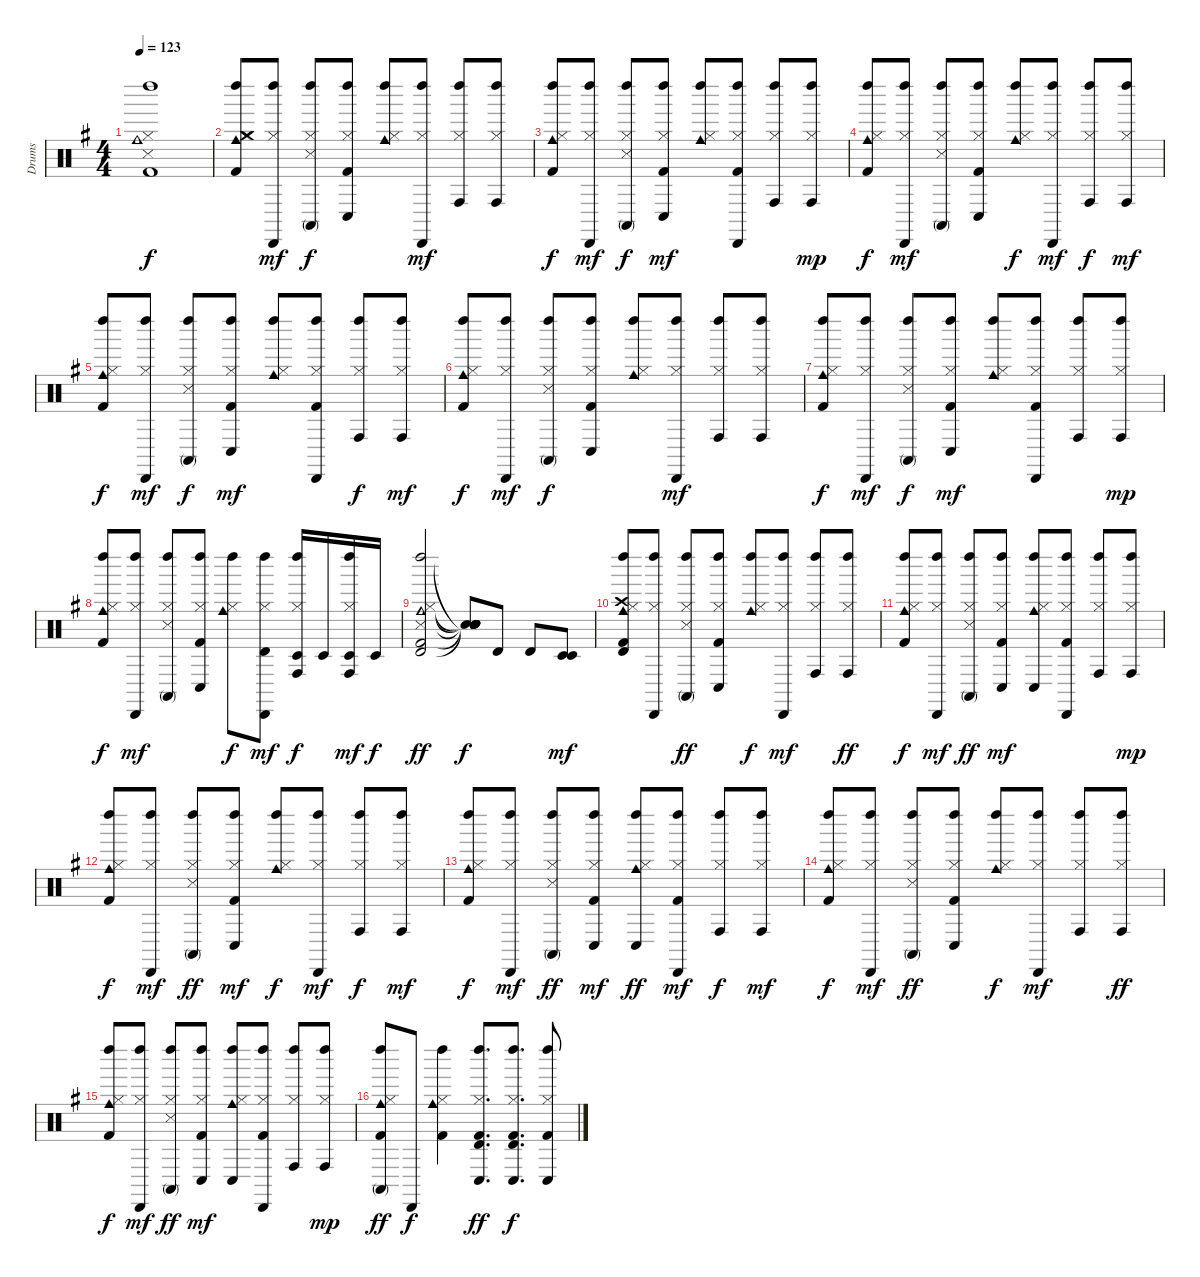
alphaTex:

\track ("Drums" "Drums") {instrument percussion}
\staff {score}
\articulation defaults
\ts (4 4)
\tempo 123
\clef neutral
\ks g
("Kick (hit) 2" "Snare (side stick) 3" "Hi-Hat (closed)" "Cowbell medium (hit)" "Left Maraca (hit)").1{dy f} |
("Kick (hit) 2" "Hi-Hat (closed)" "Cowbell medium (hit)" "Crash medium (hit)" "Left Maraca (hit)").8 ("Hi-Hat (closed)" "Cabasa (hit)" "Left Maraca (hit)").8{dy mf} ("Snare (side stick) 3" "Hi-Hat (closed)" "Conga high (mute)" "Left Maraca (hit)").8{dy f} ("Kick (hit) 2" "Hi-Hat (closed)" "Conga low (hit)" "Left Maraca (hit)").8 ("Hi-Hat (closed)" "Cowbell medium (hit)" "Left Maraca (hit)").8 ("Hi-Hat (closed)" "Cabasa (hit)" "Left Maraca (hit)").8{dy mf} ("Hi-Hat (closed)" "Conga high (hit)" "Left Maraca (hit)").8 ("Hi-Hat (closed)" "Conga high (hit)" "Left Maraca (hit)").8 |
("Kick (hit) 2" "Hi-Hat (closed)" "Cowbell medium (hit)" "Left Maraca (hit)").8{dy f} ("Hi-Hat (closed)" "Cabasa (hit)" "Left Maraca (hit)").8{dy mf} ("Snare (side stick) 3" "Hi-Hat (closed)" "Conga high (mute)" "Left Maraca (hit)").8{dy f} ("Kick (hit) 2" "Hi-Hat (closed)" "Conga low (hit)" "Left Maraca (hit)").8{dy mf} ("Hi-Hat (closed)" "Cowbell medium (hit)" "Left Maraca (hit)").8 ("Kick (hit) 2" "Hi-Hat (closed)" "Cabasa (hit)" "Left Maraca (hit)").8 ("Hi-Hat (closed)" "Conga high (hit)" "Left Maraca (hit)").8 ("Hi-Hat (closed)" "Conga high (hit)" "Left Maraca (hit)").8{dy mp} |
("Kick (hit) 2" "Hi-Hat (closed)" "Cowbell medium (hit)" "Left Maraca (hit)").8{dy f} ("Hi-Hat (closed)" "Cabasa (hit)" "Left Maraca (hit)").8{dy mf} ("Snare (side stick) 3" "Hi-Hat (closed)" "Conga high (mute)" "Left Maraca (hit)").8 ("Kick (hit) 2" "Hi-Hat (closed)" "Conga low (hit)" "Left Maraca (hit)").8 ("Hi-Hat (closed)" "Cowbell medium (hit)" "Left Maraca (hit)").8{dy f} ("Hi-Hat (closed)" "Cabasa (hit)" "Left Maraca (hit)").8{dy mf} ("Hi-Hat (closed)" "Conga high (hit)" "Left Maraca (hit)").8{dy f} ("Hi-Hat (closed)" "Conga high (hit)" "Left Maraca (hit)").8{dy mf} |
("Kick (hit) 2" "Hi-Hat (closed)" "Cowbell medium (hit)" "Left Maraca (hit)").8{dy f} ("Hi-Hat (closed)" "Cabasa (hit)" "Left Maraca (hit)").8{dy mf} ("Snare (side stick) 3" "Hi-Hat (closed)" "Conga high (mute)" "Left Maraca (hit)").8{dy f} ("Kick (hit) 2" "Hi-Hat (closed)" "Conga low (hit)" "Left Maraca (hit)").8{dy mf} ("Hi-Hat (closed)" "Cowbell medium (hit)" "Left Maraca (hit)").8 ("Kick (hit) 2" "Hi-Hat (closed)" "Cabasa (hit)" "Left Maraca (hit)").8 ("Hi-Hat (closed)" "Conga high (hit)" "Left Maraca (hit)").8{dy f} ("Hi-Hat (closed)" "Conga high (hit)" "Left Maraca (hit)").8{dy mf} |
("Kick (hit) 2" "Hi-Hat (closed)" "Cowbell medium (hit)" "Left Maraca (hit)").8{dy f} ("Hi-Hat (closed)" "Cabasa (hit)" "Left Maraca (hit)").8{dy mf} ("Snare (side stick) 3" "Hi-Hat (closed)" "Conga high (mute)" "Left Maraca (hit)").8{dy f} ("Kick (hit) 2" "Hi-Hat (closed)" "Conga low (hit)" "Left Maraca (hit)").8 ("Hi-Hat (closed)" "Cowbell medium (hit)" "Left Maraca (hit)").8 ("Hi-Hat (closed)" "Cabasa (hit)" "Left Maraca (hit)").8{dy mf} ("Hi-Hat (closed)" "Conga high (hit)" "Left Maraca (hit)").8 ("Hi-Hat (closed)" "Conga high (hit)" "Left Maraca (hit)").8 |
("Kick (hit) 2" "Hi-Hat (closed)" "Cowbell medium (hit)" "Left Maraca (hit)").8{dy f} ("Hi-Hat (closed)" "Cabasa (hit)" "Left Maraca (hit)").8{dy mf} ("Snare (side stick) 3" "Hi-Hat (closed)" "Conga high (mute)" "Left Maraca (hit)").8{dy f} ("Kick (hit) 2" "Hi-Hat (closed)" "Conga low (hit)" "Left Maraca (hit)").8{dy mf} ("Hi-Hat (closed)" "Cowbell medium (hit)" "Left Maraca (hit)").8 ("Kick (hit) 2" "Hi-Hat (closed)" "Cabasa (hit)" "Left Maraca (hit)").8 ("Hi-Hat (closed)" "Conga high (hit)" "Left Maraca (hit)").8 ("Hi-Hat (closed)" "Conga high (hit)" "Left Maraca (hit)").8{dy mp} |
("Kick (hit) 2" "Hi-Hat (closed)" "Cowbell medium (hit)" "Left Maraca (hit)").8{dy f} ("Hi-Hat (closed)" "Cabasa (hit)" "Left Maraca (hit)").8{dy mf} ("Snare (side stick) 3" "Hi-Hat (closed)" "Conga high (mute)" "Left Maraca (hit)").8 ("Kick (hit) 2" "Hi-Hat (closed)" "Conga low (hit)" "Left Maraca (hit)").8 ("Hi-Hat (closed)" "Cowbell medium (hit)" "Left Maraca (hit)").8{dy f} ("Hi-Hat (closed)" "Timbale high (hit)" "Cabasa (hit)" "Left Maraca (hit)").8{dy mf} ("Hi-Hat (closed)" "Conga high (hit)" "Timbale low (hit)" "Left Maraca (hit)").16{dy f} "Timbale low (hit)".16 ("Hi-Hat (closed)" "Conga high (hit)" "Timbale low (hit)" "Left Maraca (hit)").16{dy mf} "Timbale low (hit)".16{dy f} |
("Kick (hit) 2" "Snare (side stick) 3" "Hi-Hat (closed)" "Cowbell medium (hit)" "Timbale high (hit)" "Left Maraca (hit)").2{dy ff} ("Snare (hit)"{t} "Snare (hit)"{t} "Snare (hit)"{t} "Snare (hit)"{t} "Snare (hit)"{t} "Snare (hit)"{t}).8{dy f} "Timbale high (hit)".8 "Timbale high (hit)".8 ("Timbale low (hit)" "Timbale low (hit)").8{dy mf} |
("Kick (hit) 2" "Hi-Hat (closed)" "Crash high (hit)" "Cowbell medium (hit)" "Timbale high (hit)" "Left Maraca (hit)").8 ("Hi-Hat (closed)" "Cabasa (hit)" "Left Maraca (hit)").8 ("Snare (side stick) 3" "Hi-Hat (closed)" "Conga high (mute)" "Left Maraca (hit)").8{dy ff} ("Kick (hit) 2" "Hi-Hat (closed)" "Conga low (hit)" "Left Maraca (hit)").8 ("Hi-Hat (closed)" "Cowbell medium (hit)" "Left Maraca (hit)").8{dy f} ("Hi-Hat (closed)" "Cabasa (hit)" "Left Maraca (hit)").8{dy mf} ("Hi-Hat (closed)" "Conga high (hit)" "Left Maraca (hit)").8 ("Hi-Hat (closed)" "Conga high (hit)" "Left Maraca (hit)").8{dy ff} |
("Kick (hit) 2" "Hi-Hat (closed)" "Cowbell medium (hit)" "Left Maraca (hit)").8{dy f} ("Hi-Hat (closed)" "Cabasa (hit)" "Left Maraca (hit)").8{dy mf} ("Snare (side stick) 3" "Hi-Hat (closed)" "Conga high (mute)" "Left Maraca (hit)").8{dy ff} ("Kick (hit) 2" "Hi-Hat (closed)" "Conga low (hit)" "Left Maraca (hit)").8{dy mf} ("Hi-Hat (closed)" "Cowbell medium (hit)" "Conga low (hit)" "Left Maraca (hit)").8 ("Kick (hit) 2" "Hi-Hat (closed)" "Cabasa (hit)" "Left Maraca (hit)").8 ("Hi-Hat (closed)" "Conga high (hit)" "Left Maraca (hit)").8 ("Hi-Hat (closed)" "Conga high (hit)" "Left Maraca (hit)").8{dy mp} |
("Kick (hit) 2" "Hi-Hat (closed)" "Cowbell medium (hit)" "Left Maraca (hit)").8{dy f} ("Hi-Hat (closed)" "Cabasa (hit)" "Left Maraca (hit)").8{dy mf} ("Snare (side stick) 3" "Hi-Hat (closed)" "Conga high (mute)" "Left Maraca (hit)").8{dy ff} ("Kick (hit) 2" "Hi-Hat (closed)" "Conga low (hit)" "Left Maraca (hit)").8{dy mf} ("Hi-Hat (closed)" "Cowbell medium (hit)" "Left Maraca (hit)").8{dy f} ("Hi-Hat (closed)" "Cabasa (hit)" "Left Maraca (hit)").8{dy mf} ("Hi-Hat (closed)" "Conga high (hit)" "Left Maraca (hit)").8{dy f} ("Hi-Hat (closed)" "Conga high (hit)" "Left Maraca (hit)").8{dy mf} |
("Kick (hit) 2" "Hi-Hat (closed)" "Cowbell medium (hit)" "Left Maraca (hit)").8{dy f} ("Hi-Hat (closed)" "Cabasa (hit)" "Left Maraca (hit)").8{dy mf} ("Snare (side stick) 3" "Hi-Hat (closed)" "Conga high (mute)" "Left Maraca (hit)").8{dy ff} ("Kick (hit) 2" "Hi-Hat (closed)" "Conga low (hit)" "Left Maraca (hit)").8{dy mf} ("Hi-Hat (closed)" "Cowbell medium (hit)" "Conga low (hit)" "Left Maraca (hit)").8{dy ff} ("Kick (hit) 2" "Hi-Hat (closed)" "Cabasa (hit)" "Left Maraca (hit)").8{dy mf} ("Hi-Hat (closed)" "Conga high (hit)" "Left Maraca (hit)").8{dy f} ("Hi-Hat (closed)" "Conga high (hit)" "Left Maraca (hit)").8{dy mf} |
("Kick (hit) 2" "Hi-Hat (closed)" "Cowbell medium (hit)" "Left Maraca (hit)").8{dy f} ("Hi-Hat (closed)" "Cabasa (hit)" "Left Maraca (hit)").8{dy mf} ("Snare (side stick) 3" "Hi-Hat (closed)" "Conga high (mute)" "Left Maraca (hit)").8{dy ff} ("Kick (hit) 2" "Hi-Hat (closed)" "Conga low (hit)" "Left Maraca (hit)").8 ("Hi-Hat (closed)" "Cowbell medium (hit)" "Left Maraca (hit)").8{dy f} ("Hi-Hat (closed)" "Cabasa (hit)" "Left Maraca (hit)").8{dy mf} ("Hi-Hat (closed)" "Conga high (hit)" "Left Maraca (hit)").8 ("Hi-Hat (closed)" "Conga high (hit)" "Left Maraca (hit)").8{dy ff} |
("Kick (hit) 2" "Hi-Hat (closed)" "Cowbell medium (hit)" "Left Maraca (hit)").8{dy f} ("Hi-Hat (closed)" "Cabasa (hit)" "Left Maraca (hit)").8{dy mf} ("Snare (side stick) 3" "Hi-Hat (closed)" "Conga high (mute)" "Left Maraca (hit)").8{dy ff} ("Kick (hit) 2" "Hi-Hat (closed)" "Conga low (hit)" "Left Maraca (hit)").8{dy mf} ("Hi-Hat (closed)" "Cowbell medium (hit)" "Conga low (hit)" "Left Maraca (hit)").8 ("Kick (hit) 2" "Hi-Hat (closed)" "Cabasa (hit)" "Left Maraca (hit)").8 ("Hi-Hat (closed)" "Conga high (hit)" "Left Maraca (hit)").8 ("Hi-Hat (closed)" "Conga high (hit)" "Left Maraca (hit)").8{dy mp} |
("Kick (hit) 2" "Hi-Hat (closed)" "Cowbell medium (hit)" "Conga high (mute)" "Left Maraca (hit)").8{dy ff} "Cabasa (hit)".8{dy f} ("Kick (hit) 2" "Hi-Hat (closed)" "Cowbell medium (hit)" "Left Maraca (hit)").4 ("Kick (hit) 2" "Hi-Hat (closed)" "Conga low (hit)" "Timbale high (hit)" "Left Maraca (hit)").8{d dy ff} ("Kick (hit) 2" "Hi-Hat (closed)" "Conga low (hit)" "Timbale high (hit)" "Left Maraca (hit)").8{d dy f} ("Kick (hit) 2" "Hi-Hat (closed)" "Conga low (hit)" "Left Maraca (hit)").8
